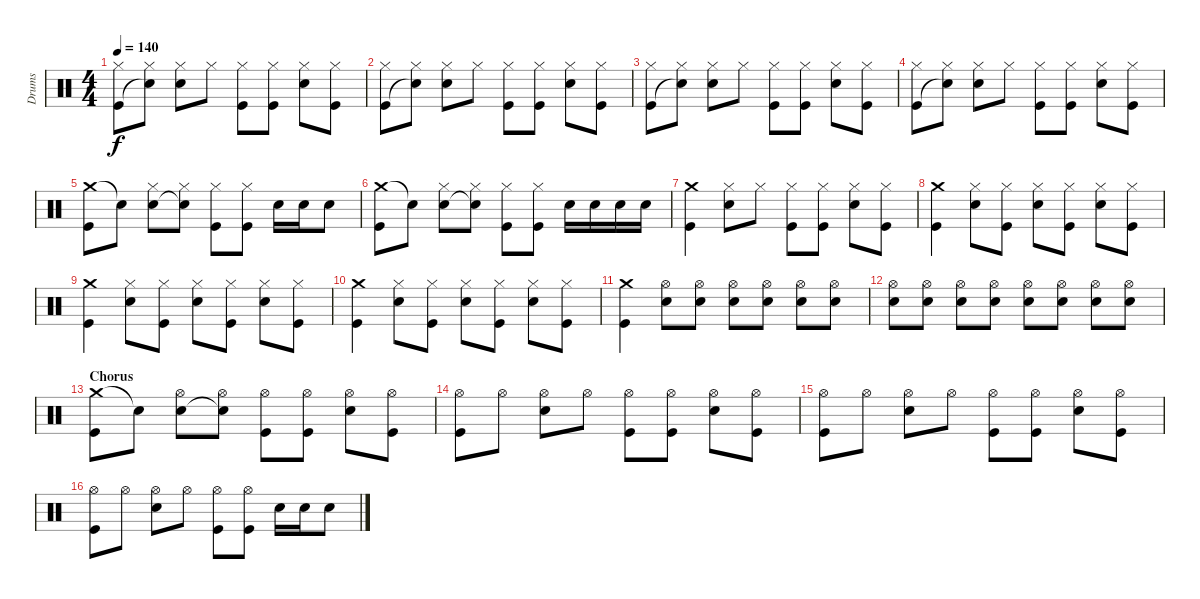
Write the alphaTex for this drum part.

\track ("Drums" "Drums") {instrument percussion}
\staff {score}
\articulation defaults
\ts (4 4)
\tempo 140
\clef neutral
\ks c
("Hi-Hat (closed)" "Kick (hit)").8{dy f} ("Hi-Hat (closed)" "Snare (hit)"{t}).8 ("Hi-Hat (closed)" "Snare (hit) 2").8 "Hi-Hat (closed)".8 ("Hi-Hat (closed)" "Kick (hit)").8 ("Hi-Hat (closed)" "Kick (hit)").8 ("Hi-Hat (closed)" "Snare (hit) 2").8 ("Hi-Hat (closed)" "Kick (hit)").8 |
("Hi-Hat (closed)" "Kick (hit)").8 ("Hi-Hat (closed)" "Snare (hit)"{t}).8 ("Hi-Hat (closed)" "Snare (hit) 2").8 "Hi-Hat (closed)".8 ("Hi-Hat (closed)" "Kick (hit)").8 ("Hi-Hat (closed)" "Kick (hit)").8 ("Hi-Hat (closed)" "Snare (hit) 2").8 ("Hi-Hat (closed)" "Kick (hit)").8 |
("Hi-Hat (closed)" "Kick (hit)").8 ("Hi-Hat (closed)" "Snare (hit)"{t}).8 ("Hi-Hat (closed)" "Snare (hit) 2").8 "Hi-Hat (closed)".8 ("Hi-Hat (closed)" "Kick (hit)").8 ("Hi-Hat (closed)" "Kick (hit)").8 ("Hi-Hat (closed)" "Snare (hit) 2").8 ("Hi-Hat (closed)" "Kick (hit)").8 |
("Hi-Hat (closed)" "Kick (hit)").8 ("Hi-Hat (closed)" "Snare (hit)"{t}).8 ("Hi-Hat (closed)" "Snare (hit) 2").8 "Hi-Hat (closed)".8 ("Hi-Hat (closed)" "Kick (hit)").8 ("Hi-Hat (closed)" "Kick (hit)").8 ("Hi-Hat (closed)" "Snare (hit) 2").8 ("Hi-Hat (closed)" "Kick (hit)").8 |
("Crash medium (hit)" "Kick (hit)").8 "Snare (hit)"{t}.8 ("Hi-Hat (closed)" "Snare (hit) 2").8 ("Hi-Hat (closed)" "Snare (hit)"{t}).8 ("Hi-Hat (closed)" "Kick (hit)").8 ("Hi-Hat (closed)" "Kick (hit)").8 "Snare (hit) 2".16 "Snare (hit) 2".16 "Snare (hit) 2".8 |
("Crash medium (hit)" "Kick (hit)").8 "Snare (hit)"{t}.8 ("Hi-Hat (closed)" "Snare (hit) 2").8 ("Hi-Hat (closed)" "Snare (hit)"{t}).8 ("Hi-Hat (closed)" "Kick (hit)").8 ("Hi-Hat (closed)" "Kick (hit)").8 "Snare (hit) 2".16 "Snare (hit) 2".16 "Snare (hit) 2".16 "Snare (hit) 2".16 |
("Crash medium (hit)" "Kick (hit)").4 ("Hi-Hat (closed)" "Snare (hit) 2").8 "Hi-Hat (closed)".8 ("Hi-Hat (closed)" "Kick (hit)").8 ("Hi-Hat (closed)" "Kick (hit)").8 ("Hi-Hat (closed)" "Snare (hit) 2").8 ("Hi-Hat (closed)" "Kick (hit)").8 |
("Crash medium (hit)" "Kick (hit)").4 ("Hi-Hat (closed)" "Snare (hit) 2").8 ("Hi-Hat (closed)" "Kick (hit)").8 ("Hi-Hat (closed)" "Snare (hit) 2").8 ("Hi-Hat (closed)" "Kick (hit)").8 ("Hi-Hat (closed)" "Snare (hit) 2").8 ("Hi-Hat (closed)" "Kick (hit)").8 |
("Crash medium (hit)" "Kick (hit)").4 ("Hi-Hat (closed)" "Snare (hit) 2").8 ("Hi-Hat (closed)" "Kick (hit)").8 ("Hi-Hat (closed)" "Snare (hit) 2").8 ("Hi-Hat (closed)" "Kick (hit)").8 ("Hi-Hat (closed)" "Snare (hit) 2").8 ("Hi-Hat (closed)" "Kick (hit)").8 |
("Crash medium (hit)" "Kick (hit)").4 ("Hi-Hat (closed)" "Snare (hit) 2").8 ("Hi-Hat (closed)" "Kick (hit)").8 ("Hi-Hat (closed)" "Snare (hit) 2").8 ("Hi-Hat (closed)" "Kick (hit)").8 ("Hi-Hat (closed)" "Snare (hit) 2").8 ("Hi-Hat (closed)" "Kick (hit)").8 |
("Crash medium (hit)" "Kick (hit)").4 ("Hi-Hat (open)" "Snare (hit) 2").8 ("Hi-Hat (open)" "Snare (hit) 2").8 ("Hi-Hat (open)" "Snare (hit) 2").8 ("Hi-Hat (open)" "Snare (hit) 2").8 ("Hi-Hat (open)" "Snare (hit) 2").8 ("Hi-Hat (open)" "Snare (hit) 2").8 |
("Hi-Hat (open)" "Snare (hit) 2").8 ("Hi-Hat (open)" "Snare (hit) 2").8 ("Hi-Hat (open)" "Snare (hit) 2").8 ("Hi-Hat (open)" "Snare (hit) 2").8 ("Hi-Hat (open)" "Snare (hit) 2").8 ("Hi-Hat (open)" "Snare (hit) 2").8 ("Hi-Hat (open)" "Snare (hit) 2").8 ("Hi-Hat (open)" "Snare (hit) 2").8 |
\section ("" "Chorus")
("Crash medium (hit)" "Kick (hit)").8 "Snare (hit)"{t}.8 ("Hi-Hat (open)" "Snare (hit) 2").8 ("Hi-Hat (open)" "Snare (hit)"{t}).8 ("Hi-Hat (open)" "Kick (hit)").8 ("Hi-Hat (open)" "Kick (hit)").8 ("Hi-Hat (open)" "Snare (hit) 2").8 ("Hi-Hat (open)" "Kick (hit)").8 |
("Hi-Hat (open)" "Kick (hit)").8 "Hi-Hat (open)".8 ("Hi-Hat (open)" "Snare (hit) 2").8 "Hi-Hat (open)".8 ("Hi-Hat (open)" "Kick (hit)").8 ("Hi-Hat (open)" "Kick (hit)").8 ("Hi-Hat (open)" "Snare (hit) 2").8 ("Hi-Hat (open)" "Kick (hit)").8 |
("Hi-Hat (open)" "Kick (hit)").8 "Hi-Hat (open)".8 ("Hi-Hat (open)" "Snare (hit) 2").8 "Hi-Hat (open)".8 ("Hi-Hat (open)" "Kick (hit)").8 ("Hi-Hat (open)" "Kick (hit)").8 ("Hi-Hat (open)" "Snare (hit) 2").8 ("Hi-Hat (open)" "Kick (hit)").8 |
("Hi-Hat (open)" "Kick (hit)").8 "Hi-Hat (open)".8 ("Hi-Hat (open)" "Snare (hit) 2").8 "Hi-Hat (open)".8 ("Hi-Hat (open)" "Kick (hit)").8 ("Hi-Hat (open)" "Kick (hit)").8 "Snare (hit) 2".16 "Snare (hit) 2".16 "Snare (hit) 2".8
